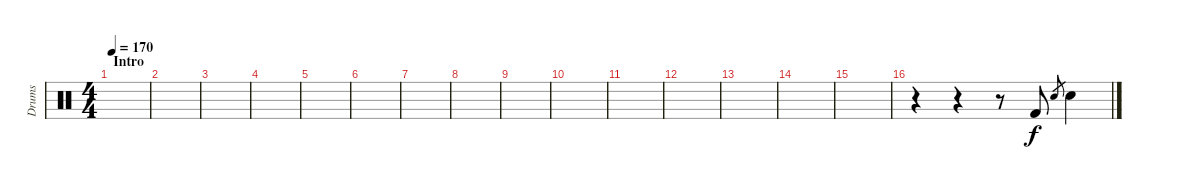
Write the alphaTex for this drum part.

\track ("Drums" "Drums") {instrument percussion}
\staff {score}
\articulation defaults
\ts (4 4)
\section ("" "Intro")
\tempo 170
\clef neutral
\ks c
|
|
|
|
|
|
|
|
|
|
|
|
|
|
|
r.4 r.4 r.8 "Kick (hit) 2".8 "Snare (hit) 2".8{gr} "Snare (hit) 2".4
